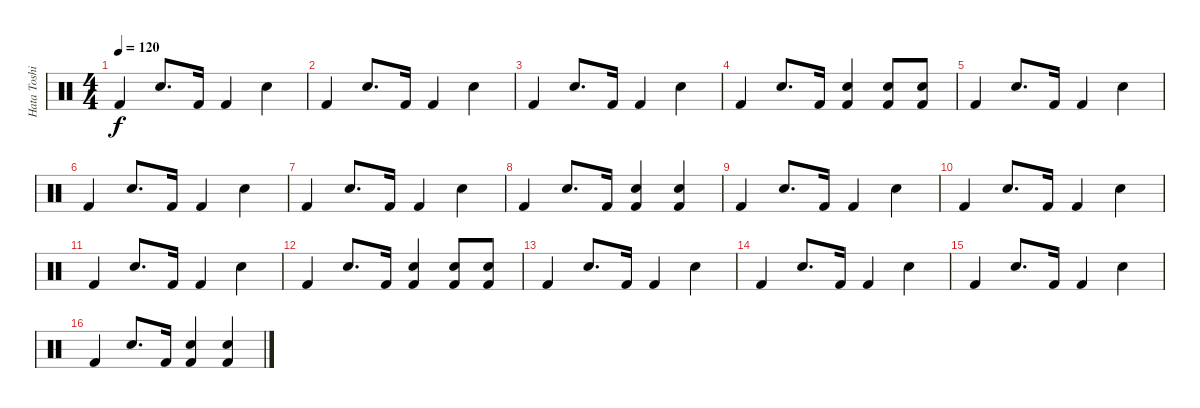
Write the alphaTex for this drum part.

\track ("Hata Toshiki" "Hata Toshi") {instrument percussion}
\staff {score}
\articulation defaults
\ts (4 4)
\tempo 120
\clef neutral
\ks c "Kick (hit) 2".4{dy f} "Electric Snare (hit)".8{d} "Kick (hit) 2".16 "Kick (hit) 2".4 "Electric Snare (hit)".4
|
"Kick (hit) 2".4 "Electric Snare (hit)".8{d} "Kick (hit) 2".16 "Kick (hit) 2".4 "Electric Snare (hit)".4 |
"Kick (hit) 2".4 "Electric Snare (hit)".8{d} "Kick (hit) 2".16 "Kick (hit) 2".4 "Electric Snare (hit)".4 |
"Kick (hit) 2".4 "Electric Snare (hit)".8{d} "Kick (hit) 2".16 ("Electric Snare (hit)" "Kick (hit) 2").4 ("Electric Snare (hit)" "Kick (hit) 2").8 ("Electric Snare (hit)" "Kick (hit) 2").8 |
"Kick (hit) 2".4 "Electric Snare (hit)".8{d} "Kick (hit) 2".16 "Kick (hit) 2".4 "Electric Snare (hit)".4 |
"Kick (hit) 2".4 "Electric Snare (hit)".8{d} "Kick (hit) 2".16 "Kick (hit) 2".4 "Electric Snare (hit)".4 |
"Kick (hit) 2".4 "Electric Snare (hit)".8{d} "Kick (hit) 2".16 "Kick (hit) 2".4 "Electric Snare (hit)".4 |
"Kick (hit) 2".4 "Electric Snare (hit)".8{d} "Kick (hit) 2".16 ("Electric Snare (hit)" "Kick (hit) 2").4 ("Electric Snare (hit)" "Kick (hit) 2").4 |
"Kick (hit) 2".4 "Electric Snare (hit)".8{d} "Kick (hit) 2".16 "Kick (hit) 2".4 "Electric Snare (hit)".4 |
"Kick (hit) 2".4 "Electric Snare (hit)".8{d} "Kick (hit) 2".16 "Kick (hit) 2".4 "Electric Snare (hit)".4 |
"Kick (hit) 2".4 "Electric Snare (hit)".8{d} "Kick (hit) 2".16 "Kick (hit) 2".4 "Electric Snare (hit)".4 |
"Kick (hit) 2".4 "Electric Snare (hit)".8{d} "Kick (hit) 2".16 ("Electric Snare (hit)" "Kick (hit) 2").4 ("Electric Snare (hit)" "Kick (hit) 2").8 ("Electric Snare (hit)" "Kick (hit) 2").8 |
"Kick (hit) 2".4 "Electric Snare (hit)".8{d} "Kick (hit) 2".16 "Kick (hit) 2".4 "Electric Snare (hit)".4 |
"Kick (hit) 2".4 "Electric Snare (hit)".8{d} "Kick (hit) 2".16 "Kick (hit) 2".4 "Electric Snare (hit)".4 |
"Kick (hit) 2".4 "Electric Snare (hit)".8{d} "Kick (hit) 2".16 "Kick (hit) 2".4 "Electric Snare (hit)".4 |
"Kick (hit) 2".4 "Electric Snare (hit)".8{d} "Kick (hit) 2".16 ("Electric Snare (hit)" "Kick (hit) 2").4 ("Electric Snare (hit)" "Kick (hit) 2").4
